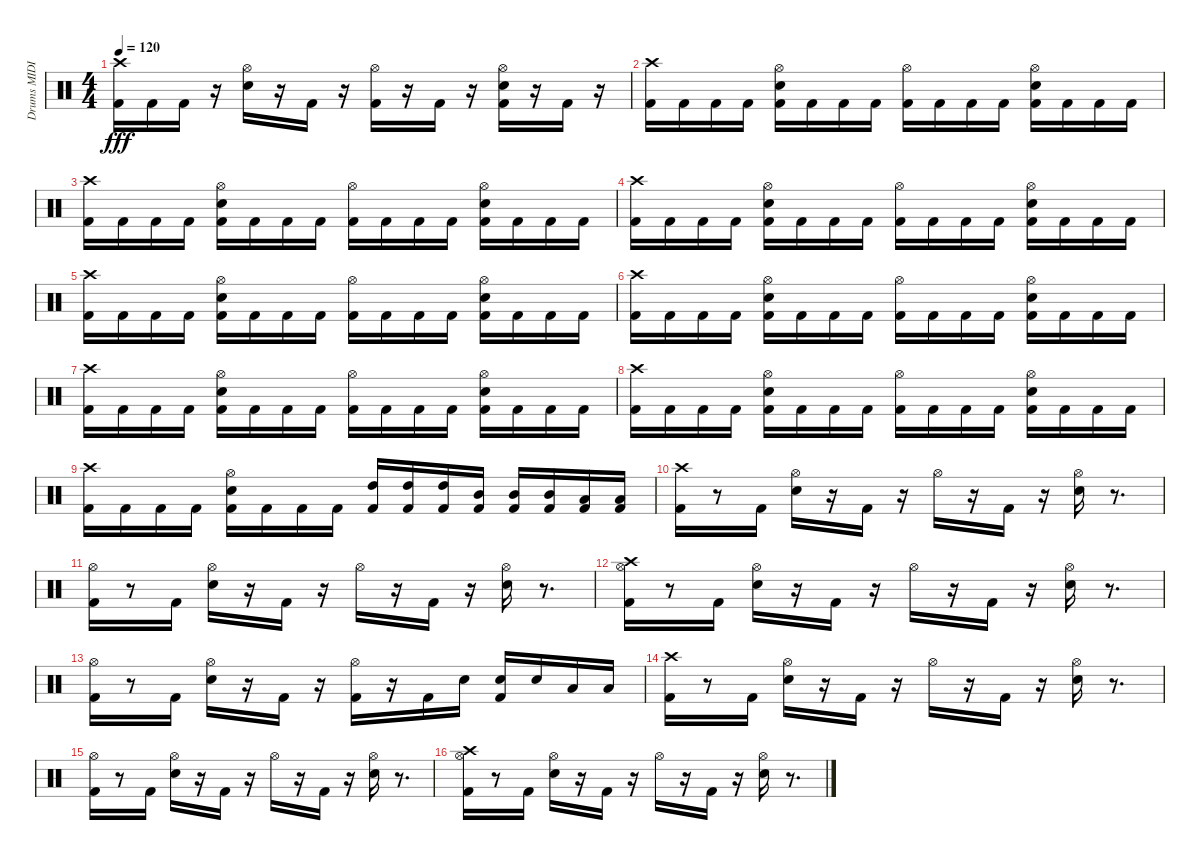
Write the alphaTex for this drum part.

\track ("Drums MIDI" "Drums MIDI") {instrument percussion}
\staff {score}
\articulation defaults
\ts (4 4)
\tempo 120
\clef neutral
\ks c
("Kick (hit) 2" "Crash high (hit)").16{dy fff} "Kick (hit) 2".16 "Kick (hit) 2".16 r.16 ("Snare (hit) 2" "Hi-Hat (open)").16 r.16 "Kick (hit) 2".16 r.16 ("Kick (hit) 2" "Hi-Hat (open)").16 r.16 "Kick (hit) 2".16 r.16 ("Kick (hit) 2" "Snare (hit) 2" "Hi-Hat (open)").16 r.16 "Kick (hit) 2".16 r.16 |
("Kick (hit) 2" "Crash high (hit)").16 "Kick (hit) 2".16 "Kick (hit) 2".16 "Kick (hit) 2".16 ("Kick (hit) 2" "Snare (hit) 2" "Hi-Hat (open)").16 "Kick (hit) 2".16 "Kick (hit) 2".16 "Kick (hit) 2".16 ("Kick (hit) 2" "Hi-Hat (open)").16 "Kick (hit) 2".16 "Kick (hit) 2".16 "Kick (hit) 2".16 ("Kick (hit) 2" "Snare (hit) 2" "Hi-Hat (open)").16 "Kick (hit) 2".16 "Kick (hit) 2".16 "Kick (hit) 2".16 |
("Kick (hit) 2" "Crash high (hit)").16 "Kick (hit) 2".16 "Kick (hit) 2".16 "Kick (hit) 2".16 ("Kick (hit) 2" "Snare (hit) 2" "Hi-Hat (open)").16 "Kick (hit) 2".16 "Kick (hit) 2".16 "Kick (hit) 2".16 ("Kick (hit) 2" "Hi-Hat (open)").16 "Kick (hit) 2".16 "Kick (hit) 2".16 "Kick (hit) 2".16 ("Kick (hit) 2" "Snare (hit) 2" "Hi-Hat (open)").16 "Kick (hit) 2".16 "Kick (hit) 2".16 "Kick (hit) 2".16 |
("Kick (hit) 2" "Crash high (hit)").16 "Kick (hit) 2".16 "Kick (hit) 2".16 "Kick (hit) 2".16 ("Kick (hit) 2" "Snare (hit) 2" "Hi-Hat (open)").16 "Kick (hit) 2".16 "Kick (hit) 2".16 "Kick (hit) 2".16 ("Kick (hit) 2" "Hi-Hat (open)").16 "Kick (hit) 2".16 "Kick (hit) 2".16 "Kick (hit) 2".16 ("Kick (hit) 2" "Snare (hit) 2" "Hi-Hat (open)").16 "Kick (hit) 2".16 "Kick (hit) 2".16 "Kick (hit) 2".16 |
("Kick (hit) 2" "Crash high (hit)").16 "Kick (hit) 2".16 "Kick (hit) 2".16 "Kick (hit) 2".16 ("Kick (hit) 2" "Snare (hit) 2" "Hi-Hat (open)").16 "Kick (hit) 2".16 "Kick (hit) 2".16 "Kick (hit) 2".16 ("Kick (hit) 2" "Hi-Hat (open)").16 "Kick (hit) 2".16 "Kick (hit) 2".16 "Kick (hit) 2".16 ("Kick (hit) 2" "Snare (hit) 2" "Hi-Hat (open)").16 "Kick (hit) 2".16 "Kick (hit) 2".16 "Kick (hit) 2".16 |
("Kick (hit) 2" "Crash high (hit)").16 "Kick (hit) 2".16 "Kick (hit) 2".16 "Kick (hit) 2".16 ("Kick (hit) 2" "Snare (hit) 2" "Hi-Hat (open)").16 "Kick (hit) 2".16 "Kick (hit) 2".16 "Kick (hit) 2".16 ("Kick (hit) 2" "Hi-Hat (open)").16 "Kick (hit) 2".16 "Kick (hit) 2".16 "Kick (hit) 2".16 ("Kick (hit) 2" "Snare (hit) 2" "Hi-Hat (open)").16 "Kick (hit) 2".16 "Kick (hit) 2".16 "Kick (hit) 2".16 |
("Kick (hit) 2" "Crash high (hit)").16 "Kick (hit) 2".16 "Kick (hit) 2".16 "Kick (hit) 2".16 ("Kick (hit) 2" "Snare (hit) 2" "Hi-Hat (open)").16 "Kick (hit) 2".16 "Kick (hit) 2".16 "Kick (hit) 2".16 ("Kick (hit) 2" "Hi-Hat (open)").16 "Kick (hit) 2".16 "Kick (hit) 2".16 "Kick (hit) 2".16 ("Kick (hit) 2" "Snare (hit) 2" "Hi-Hat (open)").16 "Kick (hit) 2".16 "Kick (hit) 2".16 "Kick (hit) 2".16 |
("Kick (hit) 2" "Crash high (hit)").16 "Kick (hit) 2".16 "Kick (hit) 2".16 "Kick (hit) 2".16 ("Kick (hit) 2" "Snare (hit) 2" "Hi-Hat (open)").16 "Kick (hit) 2".16 "Kick (hit) 2".16 "Kick (hit) 2".16 ("Kick (hit) 2" "Hi-Hat (open)").16 "Kick (hit) 2".16 "Kick (hit) 2".16 "Kick (hit) 2".16 ("Kick (hit) 2" "Snare (hit) 2" "Hi-Hat (open)").16 "Kick (hit) 2".16 "Kick (hit) 2".16 "Kick (hit) 2".16 |
("Kick (hit) 2" "Crash high (hit)").16 "Kick (hit) 2".16 "Kick (hit) 2".16 "Kick (hit) 2".16 ("Kick (hit) 2" "Snare (hit) 2" "Hi-Hat (open)").16 "Kick (hit) 2".16 "Kick (hit) 2".16 "Kick (hit) 2".16 ("Kick (hit) 2" "High Tom (hit)").16 ("Kick (hit) 2" "High Tom (hit)").16 ("Kick (hit) 2" "High Tom (hit)").16 ("Kick (hit) 2" "Mid Tom (hit)").16 ("Kick (hit) 2" "Mid Tom (hit)").16 ("Kick (hit) 2" "Mid Tom (hit)").16 ("Kick (hit) 2" "Low Tom (hit)").16 ("Kick (hit) 2" "Low Tom (hit)").16 |
("Kick (hit) 2" "Crash high (hit)").16 r.8 "Kick (hit) 2".16 ("Snare (hit) 2" "Hi-Hat (open)").16 r.16 "Kick (hit) 2".16 r.16 "Hi-Hat (open)".16 r.16 "Kick (hit) 2".16 r.16 ("Snare (hit) 2" "Hi-Hat (open)").16 r.8{d} |
("Kick (hit) 2" "Hi-Hat (open)").16 r.8 "Kick (hit) 2".16 ("Snare (hit) 2" "Hi-Hat (open)").16 r.16 "Kick (hit) 2".16 r.16 "Hi-Hat (open)".16 r.16 "Kick (hit) 2".16 r.16 ("Snare (hit) 2" "Hi-Hat (open)").16 r.8{d} |
("Kick (hit) 2" "Hi-Hat (open)" "Crash high (hit)").16 r.8 "Kick (hit) 2".16 ("Snare (hit) 2" "Hi-Hat (open)").16 r.16 "Kick (hit) 2".16 r.16 "Hi-Hat (open)".16 r.16 "Kick (hit) 2".16 r.16 ("Snare (hit) 2" "Hi-Hat (open)").16 r.8{d} |
("Kick (hit) 2" "Hi-Hat (open)").16 r.8 "Kick (hit) 2".16 ("Snare (hit) 2" "Hi-Hat (open)").16 r.16 "Kick (hit) 2".16 r.16 ("Kick (hit) 2" "Hi-Hat (open)").16 r.16 "Kick (hit) 2".16 "Snare (hit) 2".16 ("Kick (hit) 2" "Snare (hit) 2").16 "Snare (hit) 2".16 "Low Tom (hit)".16 "Low Tom (hit)".16 |
("Kick (hit) 2" "Crash high (hit)").16 r.8 "Kick (hit) 2".16 ("Snare (hit) 2" "Hi-Hat (open)").16 r.16 "Kick (hit) 2".16 r.16 "Hi-Hat (open)".16 r.16 "Kick (hit) 2".16 r.16 ("Snare (hit) 2" "Hi-Hat (open)").16 r.8{d} |
("Kick (hit) 2" "Hi-Hat (open)").16 r.8 "Kick (hit) 2".16 ("Snare (hit) 2" "Hi-Hat (open)").16 r.16 "Kick (hit) 2".16 r.16 "Hi-Hat (open)".16 r.16 "Kick (hit) 2".16 r.16 ("Snare (hit) 2" "Hi-Hat (open)").16 r.8{d} |
("Kick (hit) 2" "Hi-Hat (open)" "Crash high (hit)").16 r.8 "Kick (hit) 2".16 ("Snare (hit) 2" "Hi-Hat (open)").16 r.16 "Kick (hit) 2".16 r.16 "Hi-Hat (open)".16 r.16 "Kick (hit) 2".16 r.16 ("Snare (hit) 2" "Hi-Hat (open)").16 r.8{d}
